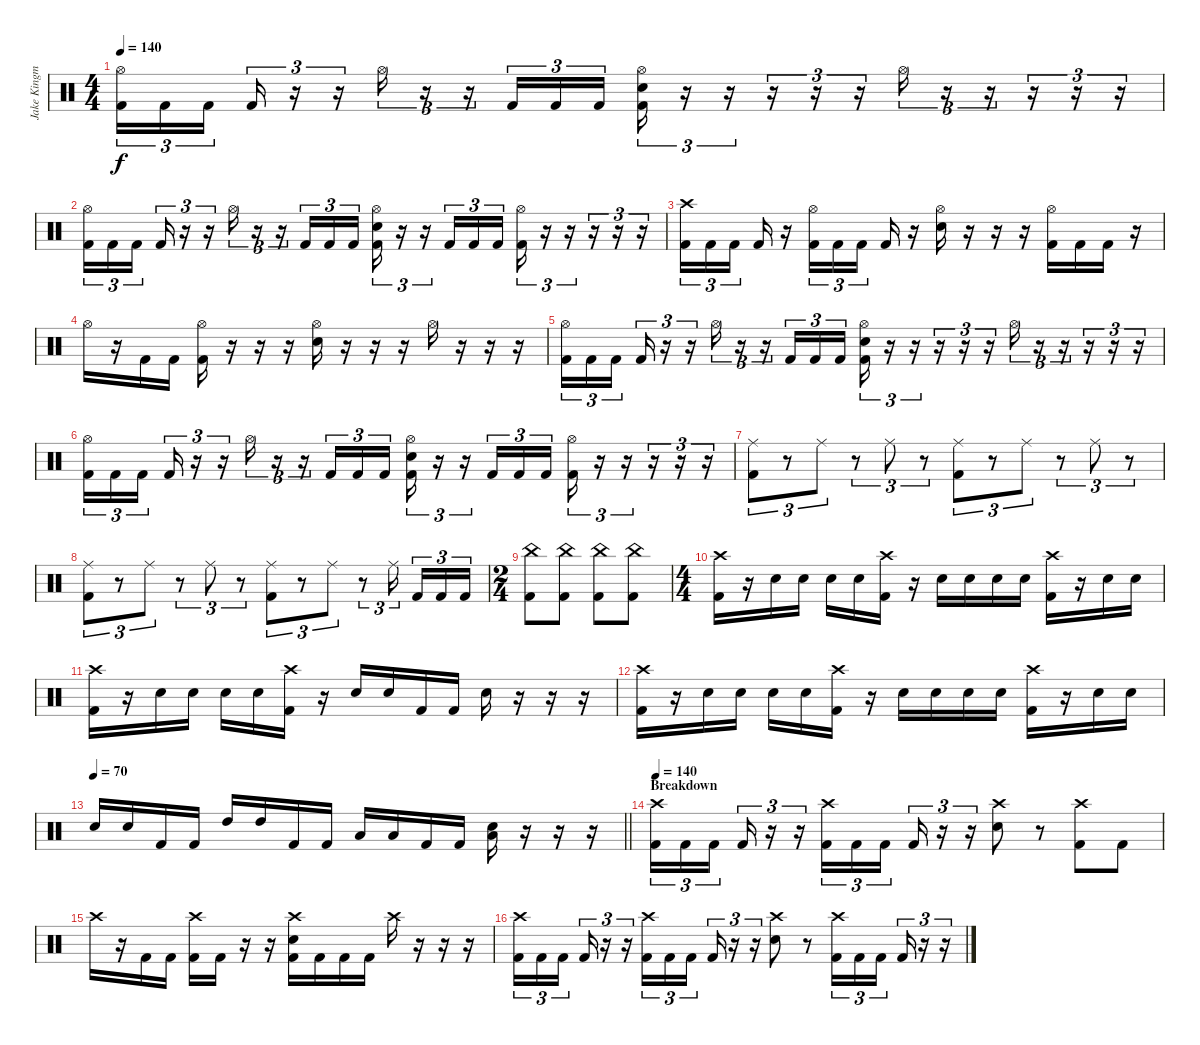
\track ("Jake Kingman (Drums)" "Jake Kingm") {instrument percussion}
\staff {score}
\articulation defaults
\ts (4 4)
\tempo 140
\clef neutral
\ks c
("Hi-Hat (open)" "Kick (hit) 2").16{tu (3 2) dy f} "Kick (hit) 2".16{tu (3 2)} "Kick (hit) 2".16{tu (3 2) beam splitsecondary} "Kick (hit) 2".16{tu (3 2)} r.16{tu (3 2)} r.16{tu (3 2)} "Hi-Hat (open)".16{tu (3 2)} r.16{tu (3 2)} r.16{tu (3 2)} "Kick (hit) 2".16{tu (3 2)} "Kick (hit) 2".16{tu (3 2)} "Kick (hit) 2".16{tu (3 2)} ("Hi-Hat (open)" "Electric Snare (hit)" "Kick (hit) 2").16{tu (3 2)} r.16{tu (3 2)} r.16{tu (3 2)} r.16{tu (3 2)} r.16{tu (3 2)} r.16{tu (3 2)} "Hi-Hat (open)".16{tu (3 2)} r.16{tu (3 2)} r.16{tu (3 2)} r.16{tu (3 2)} r.16{tu (3 2)} r.16{tu (3 2)} |
("Hi-Hat (open)" "Kick (hit) 2").16{tu (3 2)} "Kick (hit) 2".16{tu (3 2)} "Kick (hit) 2".16{tu (3 2) beam splitsecondary} "Kick (hit) 2".16{tu (3 2)} r.16{tu (3 2)} r.16{tu (3 2)} "Hi-Hat (open)".16{tu (3 2)} r.16{tu (3 2)} r.16{tu (3 2)} "Kick (hit) 2".16{tu (3 2)} "Kick (hit) 2".16{tu (3 2)} "Kick (hit) 2".16{tu (3 2)} ("Hi-Hat (open)" "Electric Snare (hit)" "Kick (hit) 2").16{tu (3 2)} r.16{tu (3 2)} r.16{tu (3 2)} "Kick (hit) 2".16{tu (3 2)} "Kick (hit) 2".16{tu (3 2)} "Kick (hit) 2".16{tu (3 2)} ("Hi-Hat (open)" "Kick (hit) 2").16{tu (3 2)} r.16{tu (3 2)} r.16{tu (3 2)} r.16{tu (3 2)} r.16{tu (3 2)} r.16{tu (3 2)} |
("Crash high (hit)" "Kick (hit) 2").16{tu (3 2)} "Kick (hit) 2".16{tu (3 2)} "Kick (hit) 2".16{tu (3 2) beam splitsecondary} "Kick (hit) 2".16 r.16 ("Hi-Hat (open)" "Kick (hit) 2").16{tu (3 2)} "Kick (hit) 2".16{tu (3 2)} "Kick (hit) 2".16{tu (3 2) beam splitsecondary} "Kick (hit) 2".16 r.16 ("Hi-Hat (open)" "Electric Snare (hit)").16 r.16 r.16 r.16 ("Hi-Hat (open)" "Kick (hit) 2").16 "Kick (hit) 2".16 "Kick (hit) 2".16 r.16 |
"Hi-Hat (open)".16 r.16 "Kick (hit) 2".16 "Kick (hit) 2".16 ("Hi-Hat (open)" "Kick (hit) 2").16 r.16 r.16 r.16 ("Hi-Hat (open)" "Electric Snare (hit)").16 r.16 r.16 r.16 "Hi-Hat (open)".16 r.16 r.16 r.16 |
("Hi-Hat (open)" "Kick (hit) 2").16{tu (3 2)} "Kick (hit) 2".16{tu (3 2)} "Kick (hit) 2".16{tu (3 2) beam splitsecondary} "Kick (hit) 2".16{tu (3 2)} r.16{tu (3 2)} r.16{tu (3 2)} "Hi-Hat (open)".16{tu (3 2)} r.16{tu (3 2)} r.16{tu (3 2)} "Kick (hit) 2".16{tu (3 2)} "Kick (hit) 2".16{tu (3 2)} "Kick (hit) 2".16{tu (3 2)} ("Hi-Hat (open)" "Electric Snare (hit)" "Kick (hit) 2").16{tu (3 2)} r.16{tu (3 2)} r.16{tu (3 2)} r.16{tu (3 2)} r.16{tu (3 2)} r.16{tu (3 2)} "Hi-Hat (open)".16{tu (3 2)} r.16{tu (3 2)} r.16{tu (3 2)} r.16{tu (3 2)} r.16{tu (3 2)} r.16{tu (3 2)} |
("Hi-Hat (open)" "Kick (hit) 2").16{tu (3 2)} "Kick (hit) 2".16{tu (3 2)} "Kick (hit) 2".16{tu (3 2) beam splitsecondary} "Kick (hit) 2".16{tu (3 2)} r.16{tu (3 2)} r.16{tu (3 2)} "Hi-Hat (open)".16{tu (3 2)} r.16{tu (3 2)} r.16{tu (3 2)} "Kick (hit) 2".16{tu (3 2)} "Kick (hit) 2".16{tu (3 2)} "Kick (hit) 2".16{tu (3 2)} ("Hi-Hat (open)" "Electric Snare (hit)" "Kick (hit) 2").16{tu (3 2)} r.16{tu (3 2)} r.16{tu (3 2)} "Kick (hit) 2".16{tu (3 2)} "Kick (hit) 2".16{tu (3 2)} "Kick (hit) 2".16{tu (3 2)} ("Hi-Hat (open)" "Kick (hit) 2").16{tu (3 2)} r.16{tu (3 2)} r.16{tu (3 2)} r.16{tu (3 2)} r.16{tu (3 2)} r.16{tu (3 2)} |
("Ride (middle)" "Kick (hit) 2").8{tu (3 2)} r.8{tu (3 2)} "Ride (middle)".8{tu (3 2)} r.8{tu (3 2)} "Ride (middle)".8{tu (3 2)} r.8{tu (3 2)} ("Ride (middle)" "Kick (hit) 2").8{tu (3 2)} r.8{tu (3 2)} "Ride (middle)".8{tu (3 2)} r.8{tu (3 2)} "Ride (middle)".8{tu (3 2)} r.8{tu (3 2)} |
("Ride (middle)" "Kick (hit) 2").8{tu (3 2)} r.8{tu (3 2)} "Ride (middle)".8{tu (3 2)} r.8{tu (3 2)} "Ride (middle)".8{tu (3 2)} r.8{tu (3 2)} ("Ride (middle)" "Kick (hit) 2").8{tu (3 2)} r.8{tu (3 2)} "Ride (middle)".8{tu (3 2)} r.8{tu (3 2)} "Ride (middle)".16{tu (3 2) beam splitsecondary} "Kick (hit) 2".16{tu (3 2)} "Kick (hit) 2".16{tu (3 2)} "Kick (hit) 2".16{tu (3 2)} |
\ts (2 4)
("China (hit)" "Kick (hit) 2").8 ("China (hit)" "Kick (hit) 2").8 ("China (hit)" "Kick (hit) 2").8 ("China (hit)" "Kick (hit) 2").8 |
\ts (4 4)
("Crash high (hit)" "Kick (hit) 2").16 r.16 "Electric Snare (hit)".16 "Electric Snare (hit)".16 "Electric Snare (hit)".16 "Electric Snare (hit)".16 ("Crash high (hit)" "Kick (hit) 2").16 r.16 "Electric Snare (hit)".16 "Electric Snare (hit)".16 "Electric Snare (hit)".16 "Electric Snare (hit)".16 ("Crash high (hit)" "Kick (hit) 2").16 r.16 "Electric Snare (hit)".16 "Electric Snare (hit)".16 |
("Crash high (hit)" "Kick (hit) 2").16 r.16 "Electric Snare (hit)".16 "Electric Snare (hit)".16 "Electric Snare (hit)".16 "Electric Snare (hit)".16 ("Crash high (hit)" "Kick (hit) 2").16 r.16 "Electric Snare (hit)".16 "Electric Snare (hit)".16 "Kick (hit) 2".16 "Kick (hit) 2".16 "Electric Snare (hit)".16 r.16 r.16 r.16 |
("Crash high (hit)" "Kick (hit) 2").16 r.16 "Electric Snare (hit)".16 "Electric Snare (hit)".16 "Electric Snare (hit)".16 "Electric Snare (hit)".16 ("Crash high (hit)" "Kick (hit) 2").16 r.16 "Electric Snare (hit)".16 "Electric Snare (hit)".16 "Electric Snare (hit)".16 "Electric Snare (hit)".16 ("Crash high (hit)" "Kick (hit) 2").16 r.16 "Electric Snare (hit)".16 "Electric Snare (hit)".16 |
\tempo 70
\barLineRight lightlight "Electric Snare (hit)".16 "Electric Snare (hit)".16 "Kick (hit) 2".16 "Kick (hit) 2".16 "High Tom (hit)".16 "High Tom (hit)".16 "Kick (hit) 2".16 "Kick (hit) 2".16 "Low Tom (hit)".16 "Low Tom (hit)".16 "Kick (hit) 2".16 "Kick (hit) 2".16
("Low Floor Tom (hit)" "Electric Snare (hit)").16 r.16 r.16 r.16 |
\section ("" "Breakdown")
\tempo 140
("Crash high (hit)" "Kick (hit) 2").16{tu (3 2)} "Kick (hit) 2".16{tu (3 2)} "Kick (hit) 2".16{tu (3 2) beam splitsecondary} "Kick (hit) 2".16{tu (3 2)} r.16{tu (3 2)} r.16{tu (3 2)} ("Crash high (hit)" "Kick (hit) 2").16{tu (3 2)} "Kick (hit) 2".16{tu (3 2)} "Kick (hit) 2".16{tu (3 2) beam splitsecondary} "Kick (hit) 2".16{tu (3 2)} r.16{tu (3 2)} r.16{tu (3 2)} ("Crash high (hit)" "Electric Snare (hit)").8 r.8 ("Crash high (hit)" "Kick (hit) 2").8 "Kick (hit) 2".8 |
"Crash high (hit)".16 r.16 "Kick (hit) 2".16 "Kick (hit) 2".16 ("Crash high (hit)" "Kick (hit) 2").16 "Kick (hit) 2".16 r.16 r.16 ("Crash high (hit)" "Electric Snare (hit)" "Kick (hit) 2").16 "Kick (hit) 2".16 "Kick (hit) 2".16 "Kick (hit) 2".16 "Crash high (hit)".16 r.16 r.16 r.16 |
("Crash high (hit)" "Kick (hit) 2").16{tu (3 2)} "Kick (hit) 2".16{tu (3 2)} "Kick (hit) 2".16{tu (3 2) beam splitsecondary} "Kick (hit) 2".16{tu (3 2)} r.16{tu (3 2)} r.16{tu (3 2)} ("Crash high (hit)" "Kick (hit) 2").16{tu (3 2)} "Kick (hit) 2".16{tu (3 2)} "Kick (hit) 2".16{tu (3 2) beam splitsecondary} "Kick (hit) 2".16{tu (3 2)} r.16{tu (3 2)} r.16{tu (3 2)} ("Crash high (hit)" "Electric Snare (hit)").8 r.8 ("Crash high (hit)" "Kick (hit) 2").16{tu (3 2)} "Kick (hit) 2".16{tu (3 2)} "Kick (hit) 2".16{tu (3 2) beam splitsecondary} "Kick (hit) 2".16{tu (3 2)} r.16{tu (3 2)} r.16{tu (3 2)}
